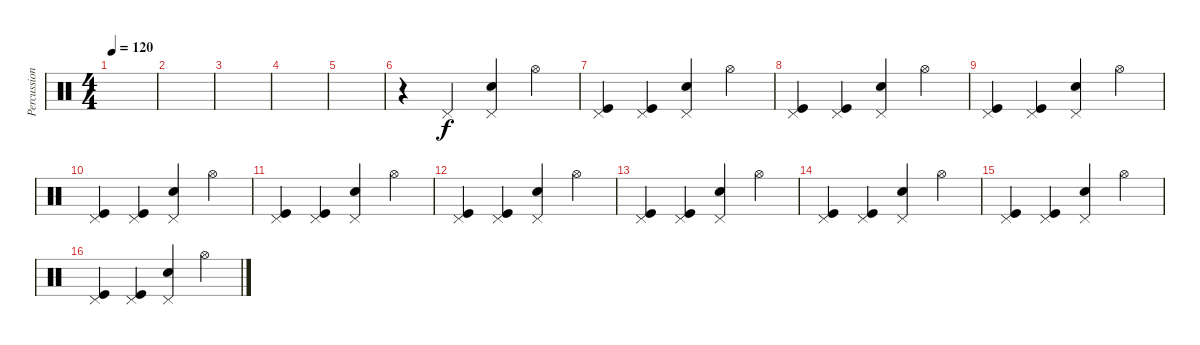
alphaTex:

\track ("Percussion" "Percussion") {instrument percussion}
\staff {score}
\articulation defaults
\ts (4 4)
\tempo 120
\clef neutral
\ks c
|
|
|
|
|
r.4 "Pedal Hi-Hat (hit)".4 ("Pedal Hi-Hat (hit)" "Electric Snare (hit)").4 "Hi-Hat (open)".4 |
("Pedal Hi-Hat (hit)" "Kick (hit)").4 ("Pedal Hi-Hat (hit)" "Kick (hit)").4 ("Pedal Hi-Hat (hit)" "Electric Snare (hit)").4 "Hi-Hat (open)".4 |
("Pedal Hi-Hat (hit)" "Kick (hit)").4 ("Pedal Hi-Hat (hit)" "Kick (hit)").4 ("Pedal Hi-Hat (hit)" "Electric Snare (hit)").4 "Hi-Hat (open)".4 |
("Pedal Hi-Hat (hit)" "Kick (hit)").4 ("Pedal Hi-Hat (hit)" "Kick (hit)").4 ("Pedal Hi-Hat (hit)" "Electric Snare (hit)").4 "Hi-Hat (open)".4 |
("Pedal Hi-Hat (hit)" "Kick (hit)").4 ("Pedal Hi-Hat (hit)" "Kick (hit)").4 ("Pedal Hi-Hat (hit)" "Electric Snare (hit)").4 "Hi-Hat (open)".4 |
("Pedal Hi-Hat (hit)" "Kick (hit)").4 ("Pedal Hi-Hat (hit)" "Kick (hit)").4 ("Pedal Hi-Hat (hit)" "Electric Snare (hit)").4 "Hi-Hat (open)".4 |
("Pedal Hi-Hat (hit)" "Kick (hit)").4 ("Pedal Hi-Hat (hit)" "Kick (hit)").4 ("Pedal Hi-Hat (hit)" "Electric Snare (hit)").4 "Hi-Hat (open)".4 |
("Pedal Hi-Hat (hit)" "Kick (hit)").4 ("Pedal Hi-Hat (hit)" "Kick (hit)").4 ("Pedal Hi-Hat (hit)" "Electric Snare (hit)").4 "Hi-Hat (open)".4 |
("Pedal Hi-Hat (hit)" "Kick (hit)").4 ("Pedal Hi-Hat (hit)" "Kick (hit)").4 ("Pedal Hi-Hat (hit)" "Electric Snare (hit)").4 "Hi-Hat (open)".4 |
("Pedal Hi-Hat (hit)" "Kick (hit)").4 ("Pedal Hi-Hat (hit)" "Kick (hit)").4 ("Pedal Hi-Hat (hit)" "Electric Snare (hit)").4 "Hi-Hat (open)".4 |
("Pedal Hi-Hat (hit)" "Kick (hit)").4 ("Pedal Hi-Hat (hit)" "Kick (hit)").4 ("Pedal Hi-Hat (hit)" "Electric Snare (hit)").4 "Hi-Hat (open)".4
